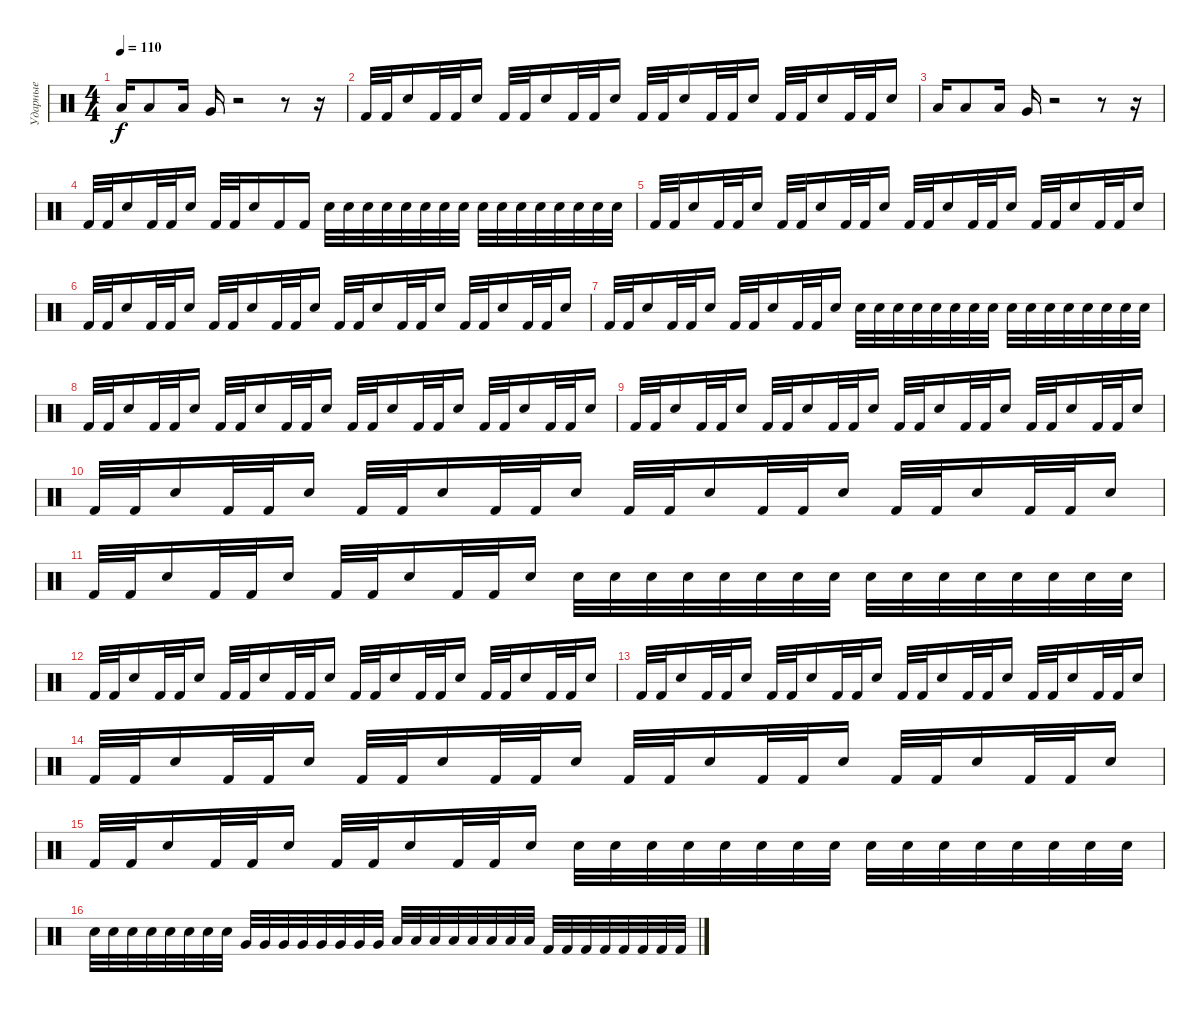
\track ("Ударные" "Ударные") {instrument percussion}
\staff {score}
\articulation defaults
\ts (4 4)
\tempo 110
\clef neutral
\ks c "Low Floor Tom (hit)".16{dy f} "Low Floor Tom (hit)".8 "Low Floor Tom (hit)".16 "Very Low Tom (hit)".16
r.2 r.8 r.16 |
"Kick (hit) 2".32 "Kick (hit) 2".32 "Snare (hit) 2".16 "Kick (hit) 2".32 "Kick (hit) 2".32 "Snare (hit) 2".16 "Kick (hit) 2".32 "Kick (hit) 2".32 "Snare (hit) 2".16 "Kick (hit) 2".32 "Kick (hit) 2".32 "Snare (hit) 2".16 "Kick (hit) 2".32 "Kick (hit) 2".32 "Snare (hit) 2".16 "Kick (hit) 2".32 "Kick (hit) 2".32 "Snare (hit) 2".16 "Kick (hit) 2".32 "Kick (hit) 2".32 "Snare (hit) 2".16 "Kick (hit) 2".32 "Kick (hit) 2".32 "Snare (hit) 2".16 |
"Low Floor Tom (hit)".16 "Low Floor Tom (hit)".8 "Low Floor Tom (hit)".16 "Very Low Tom (hit)".16 r.2 r.8 r.16 |
"Kick (hit) 2".32 "Kick (hit) 2".32 "Snare (hit) 2".16 "Kick (hit) 2".32 "Kick (hit) 2".32 "Snare (hit) 2".16 "Kick (hit) 2".32 "Kick (hit) 2".32 "Snare (hit) 2".16 "Kick (hit) 2".16 "Kick (hit) 2".16 "Snare (hit) 2".32 "Snare (hit) 2".32 "Snare (hit) 2".32 "Snare (hit) 2".32 "Snare (hit) 2".32 "Snare (hit) 2".32 "Snare (hit) 2".32 "Snare (hit) 2".32 "Snare (hit) 2".32 "Snare (hit) 2".32 "Snare (hit) 2".32 "Snare (hit) 2".32 "Snare (hit) 2".32 "Snare (hit) 2".32 "Snare (hit) 2".32 "Snare (hit) 2".32 |
"Kick (hit) 2".32 "Kick (hit) 2".32 "Snare (hit) 2".16 "Kick (hit) 2".32 "Kick (hit) 2".32 "Snare (hit) 2".16 "Kick (hit) 2".32 "Kick (hit) 2".32 "Snare (hit) 2".16 "Kick (hit) 2".32 "Kick (hit) 2".32 "Snare (hit) 2".16 "Kick (hit) 2".32 "Kick (hit) 2".32 "Snare (hit) 2".16 "Kick (hit) 2".32 "Kick (hit) 2".32 "Snare (hit) 2".16 "Kick (hit) 2".32 "Kick (hit) 2".32 "Snare (hit) 2".16 "Kick (hit) 2".32 "Kick (hit) 2".32 "Snare (hit) 2".16 |
"Kick (hit) 2".32 "Kick (hit) 2".32 "Snare (hit) 2".16 "Kick (hit) 2".32 "Kick (hit) 2".32 "Snare (hit) 2".16 "Kick (hit) 2".32 "Kick (hit) 2".32 "Snare (hit) 2".16 "Kick (hit) 2".32 "Kick (hit) 2".32 "Snare (hit) 2".16 "Kick (hit) 2".32 "Kick (hit) 2".32 "Snare (hit) 2".16 "Kick (hit) 2".32 "Kick (hit) 2".32 "Snare (hit) 2".16 "Kick (hit) 2".32 "Kick (hit) 2".32 "Snare (hit) 2".16 "Kick (hit) 2".32 "Kick (hit) 2".32 "Snare (hit) 2".16 |
"Kick (hit) 2".32 "Kick (hit) 2".32 "Snare (hit) 2".16 "Kick (hit) 2".32 "Kick (hit) 2".32 "Snare (hit) 2".16 "Kick (hit) 2".32 "Kick (hit) 2".32 "Snare (hit) 2".16 "Kick (hit) 2".32 "Kick (hit) 2".32 "Snare (hit) 2".16 "Snare (hit) 2".32 "Snare (hit) 2".32 "Snare (hit) 2".32 "Snare (hit) 2".32 "Snare (hit) 2".32 "Snare (hit) 2".32 "Snare (hit) 2".32 "Snare (hit) 2".32 "Snare (hit) 2".32 "Snare (hit) 2".32 "Snare (hit) 2".32 "Snare (hit) 2".32 "Snare (hit) 2".32 "Snare (hit) 2".32 "Snare (hit) 2".32 "Snare (hit) 2".32 |
"Kick (hit) 2".32 "Kick (hit) 2".32 "Snare (hit) 2".16 "Kick (hit) 2".32 "Kick (hit) 2".32 "Snare (hit) 2".16 "Kick (hit) 2".32 "Kick (hit) 2".32 "Snare (hit) 2".16 "Kick (hit) 2".32 "Kick (hit) 2".32 "Snare (hit) 2".16 "Kick (hit) 2".32 "Kick (hit) 2".32 "Snare (hit) 2".16 "Kick (hit) 2".32 "Kick (hit) 2".32 "Snare (hit) 2".16 "Kick (hit) 2".32 "Kick (hit) 2".32 "Snare (hit) 2".16 "Kick (hit) 2".32 "Kick (hit) 2".32 "Snare (hit) 2".16 |
"Kick (hit) 2".32 "Kick (hit) 2".32 "Snare (hit) 2".16 "Kick (hit) 2".32 "Kick (hit) 2".32 "Snare (hit) 2".16 "Kick (hit) 2".32 "Kick (hit) 2".32 "Snare (hit) 2".16 "Kick (hit) 2".32 "Kick (hit) 2".32 "Snare (hit) 2".16 "Kick (hit) 2".32 "Kick (hit) 2".32 "Snare (hit) 2".16 "Kick (hit) 2".32 "Kick (hit) 2".32 "Snare (hit) 2".16 "Kick (hit) 2".32 "Kick (hit) 2".32 "Snare (hit) 2".16 "Kick (hit) 2".32 "Kick (hit) 2".32 "Snare (hit) 2".16 |
"Kick (hit) 2".32 "Kick (hit) 2".32 "Snare (hit) 2".16 "Kick (hit) 2".32 "Kick (hit) 2".32 "Snare (hit) 2".16 "Kick (hit) 2".32 "Kick (hit) 2".32 "Snare (hit) 2".16 "Kick (hit) 2".32 "Kick (hit) 2".32 "Snare (hit) 2".16 "Kick (hit) 2".32 "Kick (hit) 2".32 "Snare (hit) 2".16 "Kick (hit) 2".32 "Kick (hit) 2".32 "Snare (hit) 2".16 "Kick (hit) 2".32 "Kick (hit) 2".32 "Snare (hit) 2".16 "Kick (hit) 2".32 "Kick (hit) 2".32 "Snare (hit) 2".16 |
"Kick (hit) 2".32 "Kick (hit) 2".32 "Snare (hit) 2".16 "Kick (hit) 2".32 "Kick (hit) 2".32 "Snare (hit) 2".16 "Kick (hit) 2".32 "Kick (hit) 2".32 "Snare (hit) 2".16 "Kick (hit) 2".32 "Kick (hit) 2".32 "Snare (hit) 2".16 "Snare (hit) 2".32 "Snare (hit) 2".32 "Snare (hit) 2".32 "Snare (hit) 2".32 "Snare (hit) 2".32 "Snare (hit) 2".32 "Snare (hit) 2".32 "Snare (hit) 2".32 "Snare (hit) 2".32 "Snare (hit) 2".32 "Snare (hit) 2".32 "Snare (hit) 2".32 "Snare (hit) 2".32 "Snare (hit) 2".32 "Snare (hit) 2".32 "Snare (hit) 2".32 |
"Kick (hit) 2".32 "Kick (hit) 2".32 "Snare (hit) 2".16 "Kick (hit) 2".32 "Kick (hit) 2".32 "Snare (hit) 2".16 "Kick (hit) 2".32 "Kick (hit) 2".32 "Snare (hit) 2".16 "Kick (hit) 2".32 "Kick (hit) 2".32 "Snare (hit) 2".16 "Kick (hit) 2".32 "Kick (hit) 2".32 "Snare (hit) 2".16 "Kick (hit) 2".32 "Kick (hit) 2".32 "Snare (hit) 2".16 "Kick (hit) 2".32 "Kick (hit) 2".32 "Snare (hit) 2".16 "Kick (hit) 2".32 "Kick (hit) 2".32 "Snare (hit) 2".16 |
"Kick (hit) 2".32 "Kick (hit) 2".32 "Snare (hit) 2".16 "Kick (hit) 2".32 "Kick (hit) 2".32 "Snare (hit) 2".16 "Kick (hit) 2".32 "Kick (hit) 2".32 "Snare (hit) 2".16 "Kick (hit) 2".32 "Kick (hit) 2".32 "Snare (hit) 2".16 "Kick (hit) 2".32 "Kick (hit) 2".32 "Snare (hit) 2".16 "Kick (hit) 2".32 "Kick (hit) 2".32 "Snare (hit) 2".16 "Kick (hit) 2".32 "Kick (hit) 2".32 "Snare (hit) 2".16 "Kick (hit) 2".32 "Kick (hit) 2".32 "Snare (hit) 2".16 |
"Kick (hit) 2".32 "Kick (hit) 2".32 "Snare (hit) 2".16 "Kick (hit) 2".32 "Kick (hit) 2".32 "Snare (hit) 2".16 "Kick (hit) 2".32 "Kick (hit) 2".32 "Snare (hit) 2".16 "Kick (hit) 2".32 "Kick (hit) 2".32 "Snare (hit) 2".16 "Kick (hit) 2".32 "Kick (hit) 2".32 "Snare (hit) 2".16 "Kick (hit) 2".32 "Kick (hit) 2".32 "Snare (hit) 2".16 "Kick (hit) 2".32 "Kick (hit) 2".32 "Snare (hit) 2".16 "Kick (hit) 2".32 "Kick (hit) 2".32 "Snare (hit) 2".16 |
"Kick (hit) 2".32 "Kick (hit) 2".32 "Snare (hit) 2".16 "Kick (hit) 2".32 "Kick (hit) 2".32 "Snare (hit) 2".16 "Kick (hit) 2".32 "Kick (hit) 2".32 "Snare (hit) 2".16 "Kick (hit) 2".32 "Kick (hit) 2".32 "Snare (hit) 2".16 "Snare (hit) 2".32 "Snare (hit) 2".32 "Snare (hit) 2".32 "Snare (hit) 2".32 "Snare (hit) 2".32 "Snare (hit) 2".32 "Snare (hit) 2".32 "Snare (hit) 2".32 "Snare (hit) 2".32 "Snare (hit) 2".32 "Snare (hit) 2".32 "Snare (hit) 2".32 "Snare (hit) 2".32 "Snare (hit) 2".32 "Snare (hit) 2".32 "Snare (hit) 2".32 |
"Snare (hit) 2".32 "Snare (hit) 2".32 "Snare (hit) 2".32 "Snare (hit) 2".32 "Snare (hit) 2".32 "Snare (hit) 2".32 "Snare (hit) 2".32 "Snare (hit) 2".32 "Very Low Tom (hit)".32 "Very Low Tom (hit)".32 "Very Low Tom (hit)".32 "Very Low Tom (hit)".32 "Very Low Tom (hit)".32 "Very Low Tom (hit)".32 "Very Low Tom (hit)".32 "Very Low Tom (hit)".32 "Low Floor Tom (hit)".32 "Low Floor Tom (hit)".32 "Low Floor Tom (hit)".32 "Low Floor Tom (hit)".32 "Low Floor Tom (hit)".32 "Low Floor Tom (hit)".32 "Low Floor Tom (hit)".32 "Low Floor Tom (hit)".32 "Kick (hit) 2".32 "Kick (hit) 2".32 "Kick (hit) 2".32 "Kick (hit) 2".32 "Kick (hit) 2".32 "Kick (hit) 2".32 "Kick (hit) 2".32 "Kick (hit) 2".32
